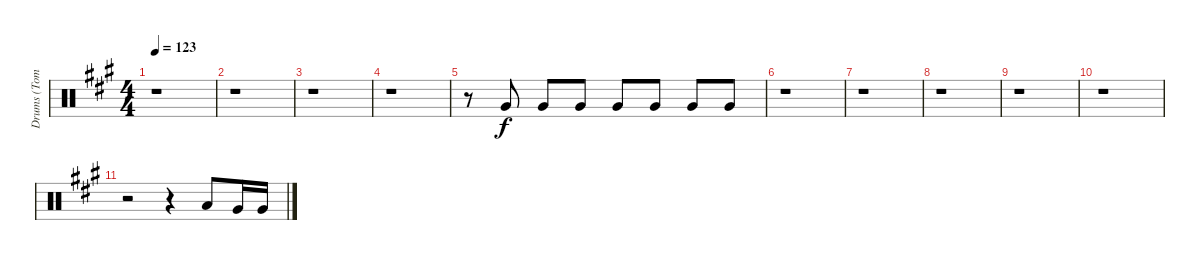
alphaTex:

\track ("Drums (Toms" "Drums (Tom") {instrument percussion}
\staff {score}
\articulation defaults
\ts (4 4)
\tempo 123
\clef neutral
\ks a
r.1{dy f} |
r.1 |
r.1 |
r.1 |
r.8 "Very Low Tom (hit)".8 "Very Low Tom (hit)".8 "Very Low Tom (hit)".8 "Very Low Tom (hit)".8 "Very Low Tom (hit)".8 "Very Low Tom (hit)".8 "Very Low Tom (hit)".8 |
r.1 |
r.1 |
r.1 |
r.1 |
r.1 |
r.2 r.4 "Low Tom (hit)".8 "Very Low Tom (hit)".16 "Very Low Tom (hit)".16
